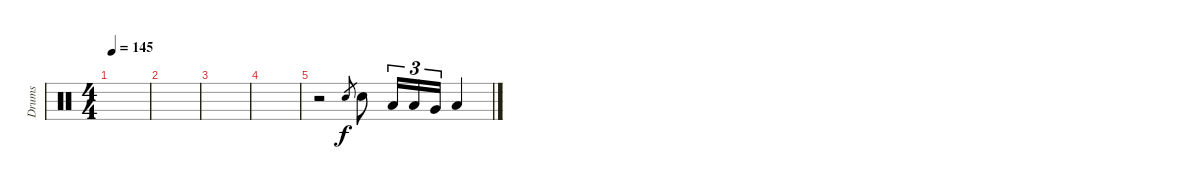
\track ("Drums" "Drums") {instrument percussion}
\staff {score}
\articulation defaults
\ts (4 4)
\tempo 145
\clef neutral
\ks c
|
|
|
|
r.2 "Electric Snare (hit)".8{gr} "Electric Snare (hit)".8 "Low Tom (hit)".16{tu (3 2)} "Low Tom (hit)".16{tu (3 2)} "Very Low Tom (hit)".16{tu (3 2)} "Low Floor Tom (hit)".4
